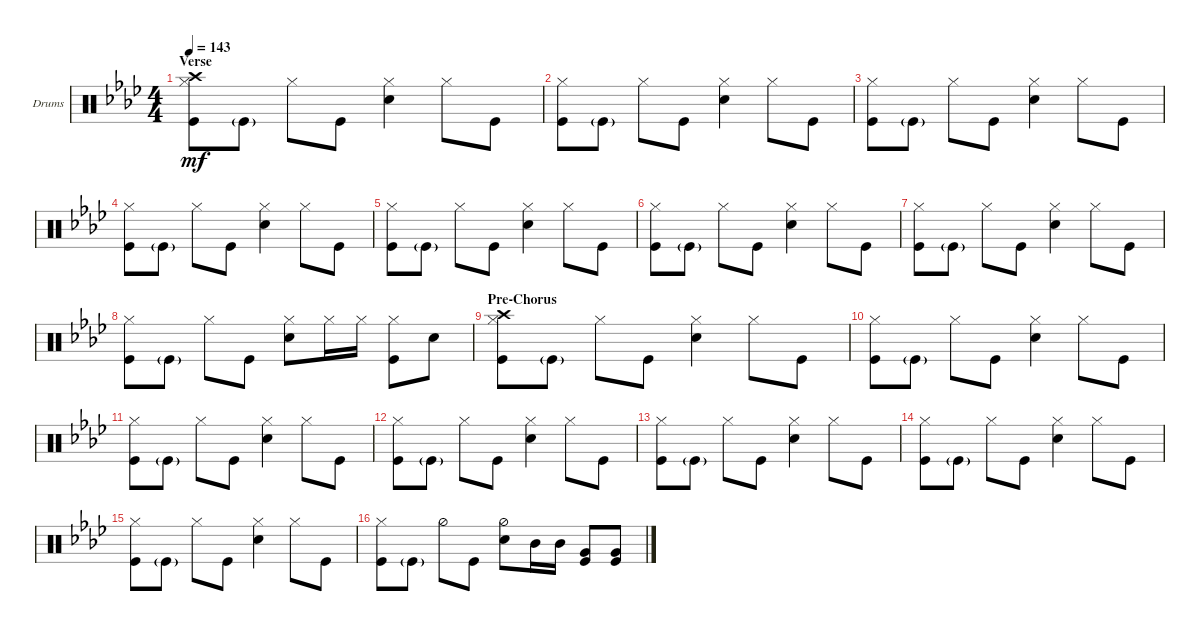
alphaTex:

\defaultSystemsLayout 4
\bracketExtendMode groupsimilarinstruments
\firstSystemTrackNameOrientation horizontal
\otherSystemsTrackNameOrientation horizontal
\track ("Drumkit" "Drums") {instrument percussion}
\staff {score}
\articulation defaults
\ts (4 4)
\section ("" "Verse")
\tempo 143
\clef neutral
\ks fminor
("Kick (hit)" "Hi-Hat (closed)" "Crash high (hit)").8{dy mf} "Kick (hit)"{g}.8 "Hi-Hat (closed)".8 "Kick (hit)".8 ("Snare (hit) 2" "Hi-Hat (closed)").4 "Hi-Hat (closed)".8 "Kick (hit)".8 |
("Kick (hit)" "Hi-Hat (closed)").8 "Kick (hit)"{g}.8 "Hi-Hat (closed)".8 "Kick (hit)".8 ("Snare (hit) 2" "Hi-Hat (closed)").4 "Hi-Hat (closed)".8 "Kick (hit)".8 |
("Kick (hit)" "Hi-Hat (closed)").8 "Kick (hit)"{g}.8 "Hi-Hat (closed)".8 "Kick (hit)".8 ("Snare (hit) 2" "Hi-Hat (closed)").4 "Hi-Hat (closed)".8 "Kick (hit)".8 |
("Kick (hit)" "Hi-Hat (closed)").8 "Kick (hit)"{g}.8 "Hi-Hat (closed)".8 "Kick (hit)".8 ("Snare (hit) 2" "Hi-Hat (closed)").4 "Hi-Hat (closed)".8 "Kick (hit)".8 |
("Kick (hit)" "Hi-Hat (closed)").8 "Kick (hit)"{g}.8 "Hi-Hat (closed)".8 "Kick (hit)".8 ("Snare (hit) 2" "Hi-Hat (closed)").4 "Hi-Hat (closed)".8 "Kick (hit)".8 |
("Kick (hit)" "Hi-Hat (closed)").8 "Kick (hit)"{g}.8 "Hi-Hat (closed)".8 "Kick (hit)".8 ("Snare (hit) 2" "Hi-Hat (closed)").4 "Hi-Hat (closed)".8 "Kick (hit)".8 |
("Kick (hit)" "Hi-Hat (closed)").8 "Kick (hit)"{g}.8 "Hi-Hat (closed)".8 "Kick (hit)".8 ("Snare (hit) 2" "Hi-Hat (closed)").4 "Hi-Hat (closed)".8 "Kick (hit)".8 |
("Kick (hit)" "Hi-Hat (closed)").8 "Kick (hit)"{g}.8 "Hi-Hat (closed)".8 "Kick (hit)".8 ("Snare (hit) 2" "Hi-Hat (closed)").8 "Hi-Hat (closed)".16 "Hi-Hat (closed)".16 ("Kick (hit)" "Hi-Hat (closed)").8 "Snare (hit) 2".8 |
\section ("" "Pre-Chorus")
("Kick (hit)" "Hi-Hat (closed)" "Crash high (hit)").8 "Kick (hit)"{g}.8 "Hi-Hat (closed)".8 "Kick (hit)".8 ("Snare (hit) 2" "Hi-Hat (closed)").4 "Hi-Hat (closed)".8 "Kick (hit)".8 |
("Kick (hit)" "Hi-Hat (closed)").8 "Kick (hit)"{g}.8 "Hi-Hat (closed)".8 "Kick (hit)".8 ("Snare (hit) 2" "Hi-Hat (closed)").4 "Hi-Hat (closed)".8 "Kick (hit)".8 |
("Kick (hit)" "Hi-Hat (closed)").8 "Kick (hit)"{g}.8 "Hi-Hat (closed)".8 "Kick (hit)".8 ("Snare (hit) 2" "Hi-Hat (closed)").4 "Hi-Hat (closed)".8 "Kick (hit)".8 |
("Kick (hit)" "Hi-Hat (closed)").8 "Kick (hit)"{g}.8 "Hi-Hat (closed)".8 "Kick (hit)".8 ("Snare (hit) 2" "Hi-Hat (closed)").4 "Hi-Hat (closed)".8 "Kick (hit)".8 |
("Kick (hit)" "Hi-Hat (closed)").8 "Kick (hit)"{g}.8 "Hi-Hat (closed)".8 "Kick (hit)".8 ("Snare (hit) 2" "Hi-Hat (closed)").4 "Hi-Hat (closed)".8 "Kick (hit)".8 |
("Kick (hit)" "Hi-Hat (closed)").8 "Kick (hit)"{g}.8 "Hi-Hat (closed)".8 "Kick (hit)".8 ("Snare (hit) 2" "Hi-Hat (closed)").4 "Hi-Hat (closed)".8 "Kick (hit)".8 |
("Kick (hit)" "Hi-Hat (closed)").8 "Kick (hit)"{g}.8 "Hi-Hat (closed)".8 "Kick (hit)".8 ("Snare (hit) 2" "Hi-Hat (closed)").4 "Hi-Hat (closed)".8 "Kick (hit)".8 |
("Kick (hit)" "Hi-Hat (closed)").8 "Kick (hit)"{g}.8 "Hi-Hat (half)".8 "Kick (hit)".8 ("Snare (hit) 2" "Hi-Hat (half)").8 "Mid Tom (hit)".16 "Mid Tom (hit)".16 ("Kick (hit)" "Very Low Tom (hit)").8 ("Kick (hit)" "Very Low Tom (hit)").8
